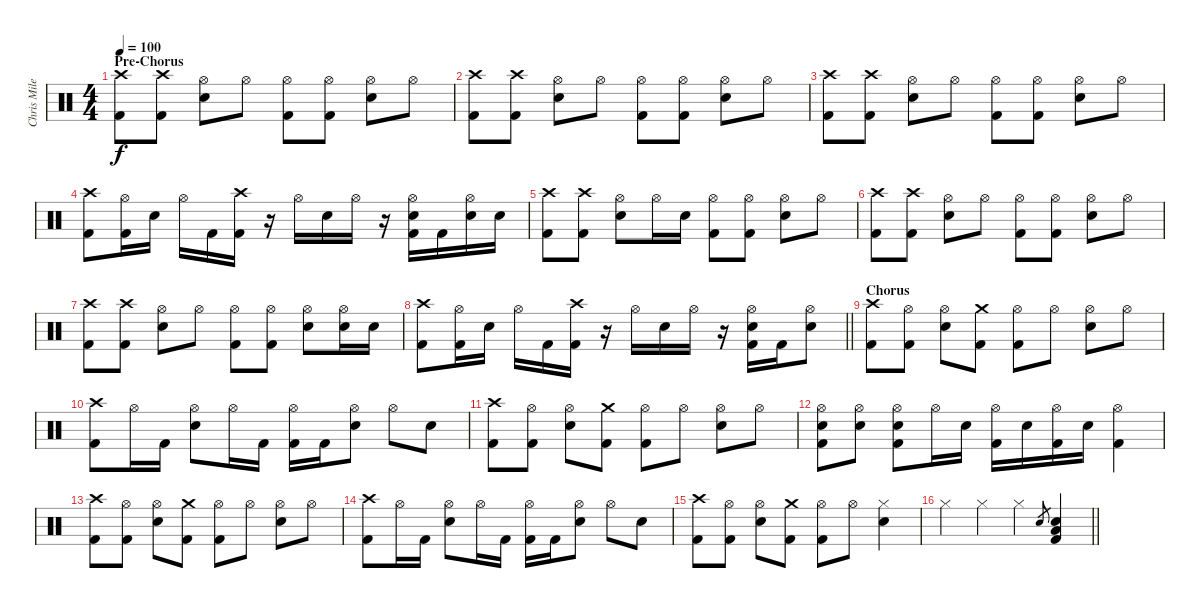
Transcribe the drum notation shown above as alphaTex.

\track ("Chris Mileski" "Chris Mile") {instrument percussion}
\staff {score}
\articulation defaults
\ts (4 4)
\section ("" "Pre-Chorus")
\tempo 100
\clef neutral
\ks c
("Crash high (hit)" "Kick (hit) 2").8{dy f} ("Crash high (hit)" "Kick (hit) 2").8 ("Hi-Hat (open)" "Electric Snare (hit)").8 "Hi-Hat (open)".8 ("Hi-Hat (open)" "Kick (hit) 2").8 ("Hi-Hat (open)" "Kick (hit) 2").8 ("Hi-Hat (open)" "Electric Snare (hit)").8 "Hi-Hat (open)".8 |
("Crash high (hit)" "Kick (hit) 2").8 ("Crash high (hit)" "Kick (hit) 2").8 ("Hi-Hat (open)" "Electric Snare (hit)").8 "Hi-Hat (open)".8 ("Hi-Hat (open)" "Kick (hit) 2").8 ("Hi-Hat (open)" "Kick (hit) 2").8 ("Hi-Hat (open)" "Electric Snare (hit)").8 "Hi-Hat (open)".8 |
("Crash high (hit)" "Kick (hit) 2").8 ("Crash high (hit)" "Kick (hit) 2").8 ("Hi-Hat (open)" "Electric Snare (hit)").8 "Hi-Hat (open)".8 ("Hi-Hat (open)" "Kick (hit) 2").8 ("Hi-Hat (open)" "Kick (hit) 2").8 ("Hi-Hat (open)" "Electric Snare (hit)").8 "Hi-Hat (open)".8 |
("Crash high (hit)" "Kick (hit) 2").8 ("Hi-Hat (open)" "Kick (hit) 2").16 "Electric Snare (hit)".16 "Hi-Hat (open)".16 "Kick (hit) 2".16 ("Crash high (hit)" "Kick (hit) 2").16 r.16 "Hi-Hat (open)".16 "Electric Snare (hit)".16 "Hi-Hat (open)".16 r.16 ("Hi-Hat (open)" "Electric Snare (hit)" "Kick (hit) 2").16 "Kick (hit) 2".16 ("Hi-Hat (open)" "Electric Snare (hit)").16 "Electric Snare (hit)".16 |
("Crash high (hit)" "Kick (hit) 2").8 ("Crash high (hit)" "Kick (hit) 2").8 ("Hi-Hat (open)" "Electric Snare (hit)").8 "Hi-Hat (open)".16 "Electric Snare (hit)".16 ("Hi-Hat (open)" "Kick (hit) 2").8 ("Hi-Hat (open)" "Kick (hit) 2").8 ("Hi-Hat (open)" "Electric Snare (hit)").8 "Hi-Hat (open)".8 |
("Crash high (hit)" "Kick (hit) 2").8 ("Crash high (hit)" "Kick (hit) 2").8 ("Hi-Hat (open)" "Electric Snare (hit)").8 "Hi-Hat (open)".8 ("Hi-Hat (open)" "Kick (hit) 2").8 ("Hi-Hat (open)" "Kick (hit) 2").8 ("Hi-Hat (open)" "Electric Snare (hit)").8 "Hi-Hat (open)".8 |
("Crash high (hit)" "Kick (hit) 2").8 ("Crash high (hit)" "Kick (hit) 2").8 ("Hi-Hat (open)" "Electric Snare (hit)").8 "Hi-Hat (open)".8 ("Hi-Hat (open)" "Kick (hit) 2").8 ("Hi-Hat (open)" "Kick (hit) 2").8 ("Hi-Hat (open)" "Electric Snare (hit)").8 ("Hi-Hat (open)" "Electric Snare (hit)").16 "Electric Snare (hit)".16 |
\barLineRight lightlight
("Crash high (hit)" "Kick (hit) 2").8 ("Hi-Hat (open)" "Kick (hit) 2").16 "Electric Snare (hit)".16 "Hi-Hat (open)".16 "Kick (hit) 2".16 ("Crash high (hit)" "Kick (hit) 2").16 r.16 "Hi-Hat (open)".16 "Electric Snare (hit)".16 "Hi-Hat (open)".16 r.16 ("Hi-Hat (open)" "Electric Snare (hit)" "Kick (hit) 2").16 "Kick (hit) 2".16 ("Hi-Hat (open)" "Electric Snare (hit)").8 |
\section ("" "Chorus")
("Crash high (hit)" "Kick (hit) 2").8 ("Hi-Hat (open)" "Kick (hit) 2").8 ("Hi-Hat (open)" "Electric Snare (hit)").8 ("Crash medium (hit)" "Kick (hit) 2").8 ("Hi-Hat (open)" "Kick (hit) 2").8 "Hi-Hat (open)".8 ("Hi-Hat (open)" "Electric Snare (hit)").8 "Hi-Hat (open)".8 |
("Crash high (hit)" "Kick (hit) 2").8 "Hi-Hat (open)".16 "Kick (hit) 2".16 ("Hi-Hat (open)" "Electric Snare (hit)").8 "Hi-Hat (open)".16 "Kick (hit) 2".16 ("Hi-Hat (open)" "Kick (hit) 2").16 "Kick (hit) 2".16 ("Hi-Hat (open)" "Electric Snare (hit)").8 "Hi-Hat (open)".8 "Electric Snare (hit)".8 |
("Crash high (hit)" "Kick (hit) 2").8 ("Hi-Hat (open)" "Kick (hit) 2").8 ("Hi-Hat (open)" "Electric Snare (hit)").8 ("Crash medium (hit)" "Kick (hit) 2").8 ("Hi-Hat (open)" "Kick (hit) 2").8 "Hi-Hat (open)".8 ("Hi-Hat (open)" "Electric Snare (hit)").8 "Hi-Hat (open)".8 |
("Hi-Hat (open)" "Electric Snare (hit)" "Kick (hit) 2").8 ("Hi-Hat (open)" "Electric Snare (hit)").8 ("Hi-Hat (open)" "Electric Snare (hit)" "Kick (hit) 2").8 "Hi-Hat (open)".16 "Electric Snare (hit)".16 ("Hi-Hat (open)" "Kick (hit) 2").16 "Electric Snare (hit)".16 ("Hi-Hat (open)" "Kick (hit) 2").16 "Electric Snare (hit)".16 ("Hi-Hat (open)" "Kick (hit) 2").4 |
("Crash high (hit)" "Kick (hit) 2").8 ("Hi-Hat (open)" "Kick (hit) 2").8 ("Hi-Hat (open)" "Electric Snare (hit)").8 ("Crash medium (hit)" "Kick (hit) 2").8 ("Hi-Hat (open)" "Kick (hit) 2").8 "Hi-Hat (open)".8 ("Hi-Hat (open)" "Electric Snare (hit)").8 "Hi-Hat (open)".8 |
("Crash high (hit)" "Kick (hit) 2").8 "Hi-Hat (open)".16 "Kick (hit) 2".16 ("Hi-Hat (open)" "Electric Snare (hit)").8 "Hi-Hat (open)".16 "Kick (hit) 2".16 ("Hi-Hat (open)" "Kick (hit) 2").16 "Kick (hit) 2".16 ("Hi-Hat (open)" "Electric Snare (hit)").8 "Hi-Hat (open)".8 "Electric Snare (hit)".8 |
("Crash high (hit)" "Kick (hit) 2").8 ("Hi-Hat (open)" "Kick (hit) 2").8 ("Hi-Hat (open)" "Electric Snare (hit)").8 ("Crash medium (hit)" "Kick (hit) 2").8 ("Hi-Hat (open)" "Kick (hit) 2").8 "Hi-Hat (open)".8 ("Hi-Hat (closed)" "Electric Snare (hit)").4 |
\barLineRight lightlight "Hi-Hat (closed)".4 "Hi-Hat (closed)".4 "Hi-Hat (closed)".4 "Electric Snare (hit)".8{gr}
("Electric Snare (hit)" "Low Tom (hit)" "Kick (hit) 2").4
